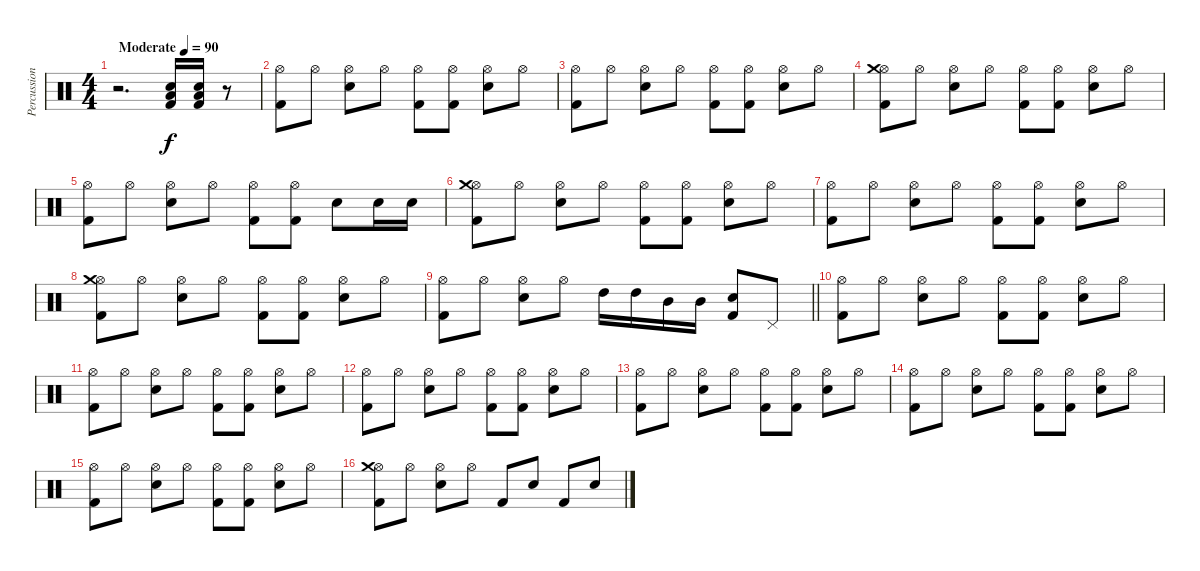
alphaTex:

\track ("Percussion" "Percussion") {instrument percussion}
\staff {score}
\articulation defaults
\ts (4 4)
\tempo (90 "Moderate")
\clef neutral
\ks c
r.2{d dy f} ("Kick (hit) 2" "Electric Snare (hit)" "Low Floor Tom (hit)").16 ("Kick (hit) 2" "Electric Snare (hit)" "Low Floor Tom (hit)").16 r.8 |
("Hi-Hat (open)" "Kick (hit) 2").8 "Hi-Hat (open)".8 ("Hi-Hat (open)" "Electric Snare (hit)").8 "Hi-Hat (open)".8 ("Hi-Hat (open)" "Kick (hit) 2").8 ("Hi-Hat (open)" "Kick (hit) 2").8 ("Hi-Hat (open)" "Electric Snare (hit)").8 "Hi-Hat (open)".8 |
("Hi-Hat (open)" "Kick (hit) 2").8 "Hi-Hat (open)".8 ("Hi-Hat (open)" "Electric Snare (hit)").8 "Hi-Hat (open)".8 ("Hi-Hat (open)" "Kick (hit) 2").8 ("Hi-Hat (open)" "Kick (hit) 2").8 ("Hi-Hat (open)" "Electric Snare (hit)").8 "Hi-Hat (open)".8 |
("Hi-Hat (open)" "Kick (hit) 2" "Crash medium (hit)").8 "Hi-Hat (open)".8 ("Hi-Hat (open)" "Electric Snare (hit)").8 "Hi-Hat (open)".8 ("Hi-Hat (open)" "Kick (hit) 2").8 ("Hi-Hat (open)" "Kick (hit) 2").8 ("Hi-Hat (open)" "Electric Snare (hit)").8 "Hi-Hat (open)".8 |
("Hi-Hat (open)" "Kick (hit) 2").8 "Hi-Hat (open)".8 ("Hi-Hat (open)" "Electric Snare (hit)").8 "Hi-Hat (open)".8 ("Hi-Hat (open)" "Kick (hit) 2").8 ("Kick (hit) 2" "Hi-Hat (open)").8 "Electric Snare (hit)".8 "Electric Snare (hit)".16 "Electric Snare (hit)".16 |
("Hi-Hat (open)" "Kick (hit) 2" "Crash medium (hit)").8 "Hi-Hat (open)".8 ("Hi-Hat (open)" "Electric Snare (hit)").8 "Hi-Hat (open)".8 ("Hi-Hat (open)" "Kick (hit) 2").8 ("Hi-Hat (open)" "Kick (hit) 2").8 ("Hi-Hat (open)" "Electric Snare (hit)").8 "Hi-Hat (open)".8 |
("Hi-Hat (open)" "Kick (hit) 2").8 "Hi-Hat (open)".8 ("Hi-Hat (open)" "Electric Snare (hit)").8 "Hi-Hat (open)".8 ("Hi-Hat (open)" "Kick (hit) 2").8 ("Hi-Hat (open)" "Kick (hit) 2").8 ("Hi-Hat (open)" "Electric Snare (hit)").8 "Hi-Hat (open)".8 |
("Hi-Hat (open)" "Kick (hit) 2" "Crash medium (hit)").8 "Hi-Hat (open)".8 ("Hi-Hat (open)" "Electric Snare (hit)").8 "Hi-Hat (open)".8 ("Hi-Hat (open)" "Kick (hit) 2").8 ("Hi-Hat (open)" "Kick (hit) 2").8 ("Hi-Hat (open)" "Electric Snare (hit)").8 "Hi-Hat (open)".8 |
\barLineRight lightlight
("Hi-Hat (open)" "Kick (hit) 2").8 "Hi-Hat (open)".8 ("Hi-Hat (open)" "Electric Snare (hit)").8 "Hi-Hat (open)".8 "High Tom (hit)".16 "High Tom (hit)".16 "Mid Tom (hit)".16 "Mid Tom (hit)".16 ("Electric Snare (hit)" "Kick (hit) 2").8 "Pedal Hi-Hat (hit)".8 |
("Hi-Hat (open)" "Kick (hit) 2").8 "Hi-Hat (open)".8 ("Hi-Hat (open)" "Electric Snare (hit)").8 "Hi-Hat (open)".8 ("Hi-Hat (open)" "Kick (hit) 2").8 ("Hi-Hat (open)" "Kick (hit) 2").8 ("Hi-Hat (open)" "Electric Snare (hit)").8 "Hi-Hat (open)".8 |
("Hi-Hat (open)" "Kick (hit) 2").8 "Hi-Hat (open)".8 ("Hi-Hat (open)" "Electric Snare (hit)").8 "Hi-Hat (open)".8 ("Hi-Hat (open)" "Kick (hit) 2").8 ("Hi-Hat (open)" "Kick (hit) 2").8 ("Hi-Hat (open)" "Electric Snare (hit)").8 "Hi-Hat (open)".8 |
("Hi-Hat (open)" "Kick (hit) 2").8 "Hi-Hat (open)".8 ("Hi-Hat (open)" "Electric Snare (hit)").8 "Hi-Hat (open)".8 ("Hi-Hat (open)" "Kick (hit) 2").8 ("Hi-Hat (open)" "Kick (hit) 2").8 ("Hi-Hat (open)" "Electric Snare (hit)").8 "Hi-Hat (open)".8 |
("Hi-Hat (open)" "Kick (hit) 2").8 "Hi-Hat (open)".8 ("Hi-Hat (open)" "Electric Snare (hit)").8 "Hi-Hat (open)".8 ("Hi-Hat (open)" "Kick (hit) 2").8 ("Hi-Hat (open)" "Kick (hit) 2").8 ("Hi-Hat (open)" "Electric Snare (hit)").8 "Hi-Hat (open)".8 |
("Hi-Hat (open)" "Kick (hit) 2").8 "Hi-Hat (open)".8 ("Hi-Hat (open)" "Electric Snare (hit)").8 "Hi-Hat (open)".8 ("Hi-Hat (open)" "Kick (hit) 2").8 ("Hi-Hat (open)" "Kick (hit) 2").8 ("Hi-Hat (open)" "Electric Snare (hit)").8 "Hi-Hat (open)".8 |
("Hi-Hat (open)" "Kick (hit) 2").8 "Hi-Hat (open)".8 ("Hi-Hat (open)" "Electric Snare (hit)").8 "Hi-Hat (open)".8 ("Hi-Hat (open)" "Kick (hit) 2").8 ("Hi-Hat (open)" "Kick (hit) 2").8 ("Hi-Hat (open)" "Electric Snare (hit)").8 "Hi-Hat (open)".8 |
("Hi-Hat (open)" "Kick (hit) 2" "Crash medium (hit)").8 "Hi-Hat (open)".8 ("Hi-Hat (open)" "Electric Snare (hit)").8 "Hi-Hat (open)".8 "Kick (hit) 2".8 "Electric Snare (hit)".8 "Kick (hit) 2".8 "Electric Snare (hit)".8
